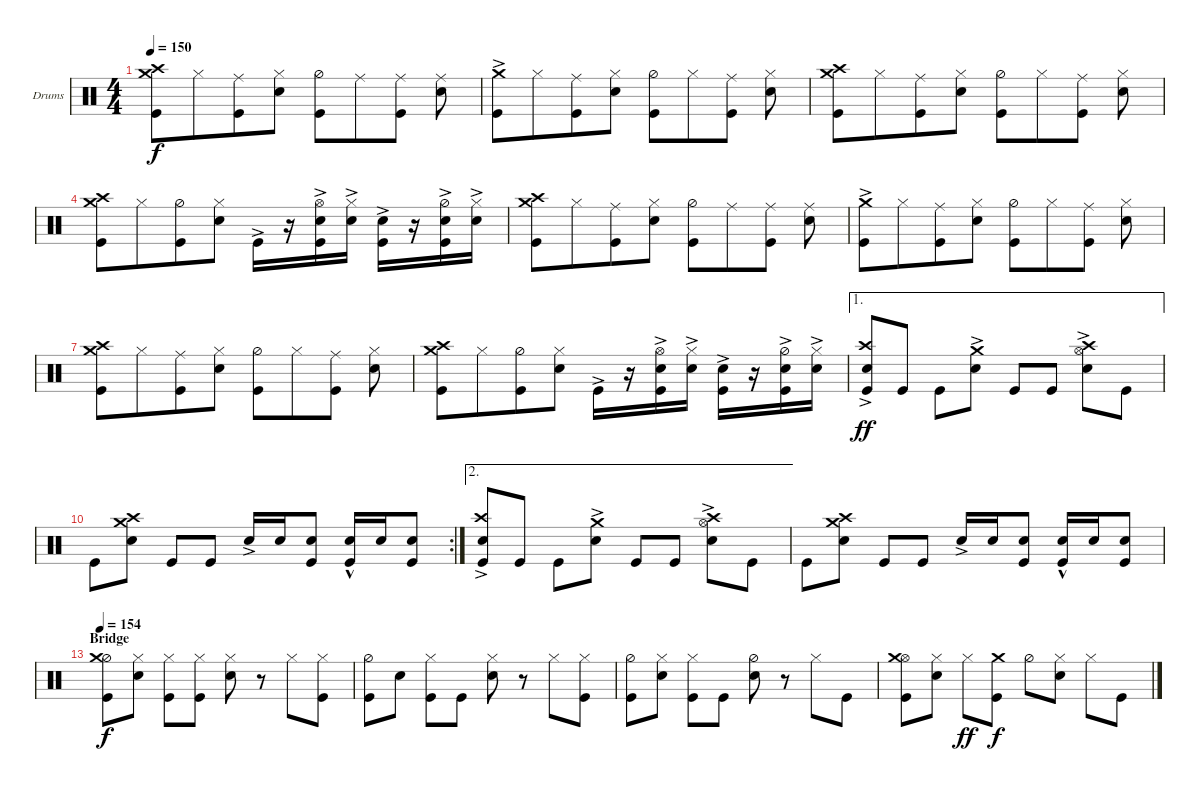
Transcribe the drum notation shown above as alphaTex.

\defaultSystemsLayout 4
\bracketExtendMode nobrackets
\firstSystemTrackNameOrientation horizontal
\otherSystemsTrackNameOrientation horizontal
\defaultBarNumberDisplay FirstOfSystem
\track ("Drum" "Drums") {instrument percussion}
\staff {score}
\articulation defaults
\ts (4 4)
\tempo 150
\clef neutral
\scale
0.25
\ks c
("Kick (hit)" "Crash medium (hit)" "Crash high (hit)").8{dy f} "Hi-Hat (closed)".8{beam merge} ("Kick (hit)" "Ride (middle)").8 ("Snare (hit) 2" "Hi-Hat (closed)").8 ("Hi-Hat (half)" "Kick (hit)").8 "Ride (middle)".8{beam merge} ("Kick (hit)" "Ride (middle)").8{beam split} ("Snare (hit) 2" "Ride (middle)").8 |
\scale
0.262431 ("Kick (hit)" "Crash medium (hit)"{ac}).8 "Hi-Hat (closed)".8{beam merge} ("Kick (hit)" "Ride (middle)").8 ("Snare (hit) 2" "Hi-Hat (closed)").8 ("Hi-Hat (half)" "Kick (hit)").8 "Hi-Hat (closed)".8{beam merge} ("Kick (hit)" "Ride (middle)").8{beam split} ("Snare (hit) 2" "Hi-Hat (closed)").8 |
\scale
0.237569 ("Kick (hit)" "Crash high (hit)" "Crash medium (hit)").8 "Hi-Hat (closed)".8{beam merge} ("Kick (hit)" "Ride (middle)").8 ("Snare (hit) 2" "Hi-Hat (closed)").8 ("Hi-Hat (half)" "Kick (hit)").8 "Hi-Hat (closed)".8{beam merge} ("Kick (hit)" "Ride (middle)").8{beam split} ("Snare (hit) 2" "Hi-Hat (closed)").8 |
\scale
0.25 ("Kick (hit)" "Crash high (hit)" "Crash medium (hit)").8 "Hi-Hat (closed)".8{beam merge} ("Kick (hit)" "Hi-Hat (half)").8 ("Snare (hit) 2" "Hi-Hat (closed)").8 "Kick (hit)"{ac}.16 r.16 ("Snare (hit) 2"{ac} "Kick (hit)"{ac} "Hi-Hat (open)").16 ("Snare (hit) 2"{ac} "Hi-Hat (closed)").16 ("Snare (hit) 2" "Kick (hit)"{ac}).16 r.16 ("Kick (hit)"{ac} "Snare (hit) 2"{ac} "Hi-Hat (half)").16 ("Snare (hit) 2"{ac} "Hi-Hat (closed)").16 |
\scale
0.232919 ("Kick (hit)" "Crash medium (hit)" "Crash high (hit)").8 "Hi-Hat (closed)".8{beam merge} ("Kick (hit)" "Ride (middle)").8 ("Snare (hit) 2" "Hi-Hat (closed)").8 ("Hi-Hat (half)" "Kick (hit)").8 "Ride (middle)".8{beam merge} ("Kick (hit)" "Ride (middle)").8{beam split} ("Snare (hit) 2" "Ride (middle)").8 |
\scale
0.232919 ("Kick (hit)" "Crash medium (hit)"{ac}).8 "Hi-Hat (closed)".8{beam merge} ("Kick (hit)" "Ride (middle)").8 ("Snare (hit) 2" "Hi-Hat (closed)").8 ("Hi-Hat (half)" "Kick (hit)").8 "Hi-Hat (closed)".8{beam merge} ("Kick (hit)" "Ride (middle)").8{beam split} ("Snare (hit) 2" "Hi-Hat (closed)").8 |
\scale
0.232919 ("Kick (hit)" "Crash high (hit)" "Crash medium (hit)").8 "Hi-Hat (closed)".8{beam merge} ("Kick (hit)" "Ride (middle)").8 ("Snare (hit) 2" "Hi-Hat (closed)").8 ("Hi-Hat (half)" "Kick (hit)").8 "Hi-Hat (closed)".8{beam merge} ("Kick (hit)" "Ride (middle)").8{beam split} ("Snare (hit) 2" "Hi-Hat (closed)").8 |
\scale
0.301242 ("Kick (hit)" "Crash high (hit)" "Crash medium (hit)").8 "Hi-Hat (closed)".8{beam merge} ("Kick (hit)" "Hi-Hat (half)").8 ("Snare (hit) 2" "Hi-Hat (closed)").8 "Kick (hit)"{ac}.16 r.16 ("Snare (hit) 2"{ac} "Kick (hit)"{ac} "Hi-Hat (open)").16 ("Snare (hit) 2"{ac} "Hi-Hat (closed)").16 ("Snare (hit) 2" "Kick (hit)"{ac}).16 r.16 ("Kick (hit)"{ac} "Snare (hit) 2"{ac} "Hi-Hat (half)").16 ("Snare (hit) 2"{ac} "Hi-Hat (closed)").16 |
\ae 1
("Snare (hit) 2" "Crash high (hit)"{ac} "Kick (hit)"{ac}).8{dy ff} "Kick (hit)".8 "Kick (hit)".8 ("Crash medium (hit)"{ac} "Snare (hit) 2").8 "Kick (hit)".8 "Kick (hit)".8 ("Snare (hit) 2" "Hi-Hat (open)" "Crash high (hit)"{ac}).8 "Kick (hit)".8 |
\rc 2 "Kick (hit)".8
("Crash medium (hit)" "Snare (hit) 2" "Crash high (hit)").8 "Kick (hit)".8 "Kick (hit)".8 "Snare (hit) 2"{ac}.16 "Snare (hit) 2".16 ("Kick (hit)" "Snare (hit) 2").8 ("Kick (hit)" "Snare (hit) 2"{hac}).16 "Snare (hit) 2".16 ("Kick (hit)" "Snare (hit) 2").8 |
\ae 2
("Snare (hit) 2" "Crash high (hit)"{ac} "Kick (hit)"{ac}).8 "Kick (hit)".8 "Kick (hit)".8 ("Crash medium (hit)"{ac} "Snare (hit) 2").8 "Kick (hit)".8 "Kick (hit)".8 ("Snare (hit) 2" "Hi-Hat (open)" "Crash high (hit)"{ac}).8 "Kick (hit)".8 |
"Kick (hit)".8 ("Crash medium (hit)" "Snare (hit) 2" "Crash high (hit)").8 "Kick (hit)".8 "Kick (hit)".8 "Snare (hit) 2"{ac}.16 "Snare (hit) 2".16 ("Kick (hit)" "Snare (hit) 2").8 ("Kick (hit)" "Snare (hit) 2"{hac}).16 "Snare (hit) 2".16 ("Kick (hit)" "Snare (hit) 2").8 |
\section ("" "Bridge")
\tempo 154
("Kick (hit)" "Hi-Hat (half)" "Crash medium (hit)").8{dy f} ("Snare (hit) 2" "Hi-Hat (closed)").8 ("Hi-Hat (closed)" "Kick (hit)").8 ("Kick (hit)" "Hi-Hat (closed)").8 ("Hi-Hat (closed)" "Snare (hit) 2").8 r.8 "Hi-Hat (closed)".8 ("Kick (hit)" "Hi-Hat (closed)").8 |
("Kick (hit)" "Hi-Hat (half)").8 "Snare (hit) 2".8 ("Hi-Hat (closed)" "Kick (hit)").8 "Kick (hit)".8 ("Hi-Hat (closed)" "Snare (hit) 2").8 r.8 "Hi-Hat (closed)".8 ("Kick (hit)" "Hi-Hat (closed)").8 |
("Kick (hit)" "Hi-Hat (half)").8 ("Hi-Hat (closed)" "Snare (hit) 2").8 ("Hi-Hat (closed)" "Kick (hit)").8 "Kick (hit)".8 ("Hi-Hat (half)" "Snare (hit) 2").8 r.8 "Hi-Hat (closed)".8 "Kick (hit)".8 |
("Kick (hit)" "Hi-Hat (open)" "Crash medium (hit)").8 ("Snare (hit) 2" "Hi-Hat (closed)").8 "Hi-Hat (closed)".8{dy ff} ("Kick (hit)" "Crash medium (hit)").8{dy f} "Hi-Hat (half)".8 ("Snare (hit) 2" "Hi-Hat (closed)").8 "Hi-Hat (closed)".8 "Kick (hit)".8
